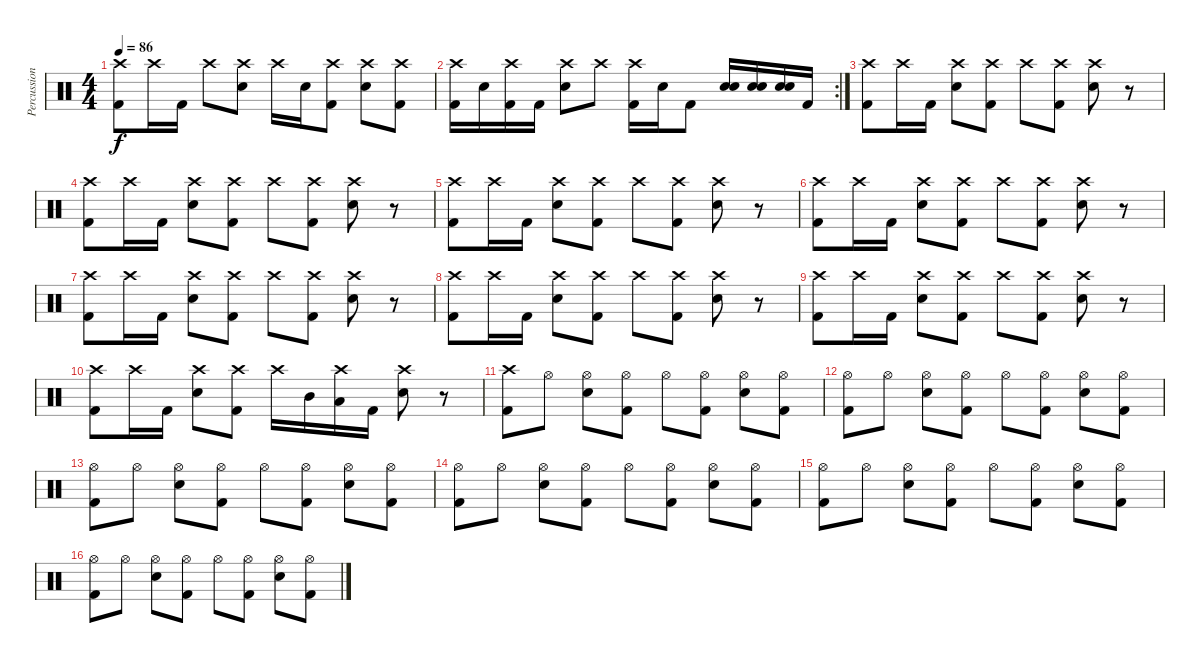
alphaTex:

\track ("Percussions" "Percussion") {instrument percussion}
\staff {score}
\articulation defaults
\ts (4 4)
\tempo 86
\clef neutral
\ks c
("Crash high (hit)" "Kick (hit) 2").8{dy f} "Crash high (hit)".16 "Kick (hit) 2".16 "Crash high (hit)".8 ("Crash high (hit)" "Electric Snare (hit)").8 "Crash high (hit)".16 "Electric Snare (hit)".16 ("Crash high (hit)" "Kick (hit) 2").8 ("Crash high (hit)" "Electric Snare (hit)").8 ("Crash high (hit)" "Kick (hit) 2").8 |
\rc 2
("Crash high (hit)" "Kick (hit) 2").16 "Electric Snare (hit)".16 ("Crash high (hit)" "Kick (hit) 2").16 "Kick (hit) 2".16 ("Crash high (hit)" "Electric Snare (hit)").8 "Crash high (hit)".8 ("Crash high (hit)" "Kick (hit) 2").16 "Electric Snare (hit)".16 "Kick (hit) 2".8 ("Electric Snare (hit)" "Electric Snare (hit)").16 ("Electric Snare (hit)" "Electric Snare (hit)").16 ("Electric Snare (hit)" "Electric Snare (hit)").16 "Kick (hit) 2".16 |
("Crash high (hit)" "Kick (hit) 2").8 "Crash high (hit)".16 "Kick (hit) 2".16 ("Crash high (hit)" "Electric Snare (hit)").8 ("Crash high (hit)" "Kick (hit) 2").8 "Crash high (hit)".8 ("Crash high (hit)" "Kick (hit) 2").8 ("Crash high (hit)" "Electric Snare (hit)").8 r.8 |
("Crash high (hit)" "Kick (hit) 2").8 "Crash high (hit)".16 "Kick (hit) 2".16 ("Crash high (hit)" "Electric Snare (hit)").8 ("Crash high (hit)" "Kick (hit) 2").8 "Crash high (hit)".8 ("Crash high (hit)" "Kick (hit) 2").8 ("Crash high (hit)" "Electric Snare (hit)").8 r.8 |
("Crash high (hit)" "Kick (hit) 2").8 "Crash high (hit)".16 "Kick (hit) 2".16 ("Crash high (hit)" "Electric Snare (hit)").8 ("Crash high (hit)" "Kick (hit) 2").8 "Crash high (hit)".8 ("Crash high (hit)" "Kick (hit) 2").8 ("Crash high (hit)" "Electric Snare (hit)").8 r.8 |
("Crash high (hit)" "Kick (hit) 2").8 "Crash high (hit)".16 "Kick (hit) 2".16 ("Crash high (hit)" "Electric Snare (hit)").8 ("Crash high (hit)" "Kick (hit) 2").8 "Crash high (hit)".8 ("Crash high (hit)" "Kick (hit) 2").8 ("Crash high (hit)" "Electric Snare (hit)").8 r.8 |
("Crash high (hit)" "Kick (hit) 2").8 "Crash high (hit)".16 "Kick (hit) 2".16 ("Crash high (hit)" "Electric Snare (hit)").8 ("Crash high (hit)" "Kick (hit) 2").8 "Crash high (hit)".8 ("Crash high (hit)" "Kick (hit) 2").8 ("Crash high (hit)" "Electric Snare (hit)").8 r.8 |
("Crash high (hit)" "Kick (hit) 2").8 "Crash high (hit)".16 "Kick (hit) 2".16 ("Crash high (hit)" "Electric Snare (hit)").8 ("Crash high (hit)" "Kick (hit) 2").8 "Crash high (hit)".8 ("Crash high (hit)" "Kick (hit) 2").8 ("Crash high (hit)" "Electric Snare (hit)").8 r.8 |
("Crash high (hit)" "Kick (hit) 2").8 "Crash high (hit)".16 "Kick (hit) 2".16 ("Crash high (hit)" "Electric Snare (hit)").8 ("Crash high (hit)" "Kick (hit) 2").8 "Crash high (hit)".8 ("Crash high (hit)" "Kick (hit) 2").8 ("Crash high (hit)" "Electric Snare (hit)").8 r.8 |
("Crash high (hit)" "Kick (hit) 2").8 "Crash high (hit)".16 "Kick (hit) 2".16 ("Crash high (hit)" "Electric Snare (hit)").8 ("Crash high (hit)" "Kick (hit) 2").8 "Crash high (hit)".16 "Mid Tom (hit)".16 ("Crash high (hit)" "Low Tom (hit)").16 "Kick (hit) 2".16 ("Crash high (hit)" "Electric Snare (hit)").8 r.8 |
("Crash high (hit)" "Kick (hit) 2").8 "Hi-Hat (open)".8 ("Hi-Hat (open)" "Electric Snare (hit)").8 ("Hi-Hat (open)" "Kick (hit) 2").8 "Hi-Hat (open)".8 ("Hi-Hat (open)" "Kick (hit) 2").8 ("Hi-Hat (open)" "Electric Snare (hit)").8 ("Hi-Hat (open)" "Kick (hit) 2").8 |
("Hi-Hat (open)" "Kick (hit) 2").8 "Hi-Hat (open)".8 ("Hi-Hat (open)" "Electric Snare (hit)").8 ("Hi-Hat (open)" "Kick (hit) 2").8 "Hi-Hat (open)".8 ("Hi-Hat (open)" "Kick (hit) 2").8 ("Hi-Hat (open)" "Electric Snare (hit)").8 ("Hi-Hat (open)" "Kick (hit) 2").8 |
("Hi-Hat (open)" "Kick (hit) 2").8 "Hi-Hat (open)".8 ("Hi-Hat (open)" "Electric Snare (hit)").8 ("Hi-Hat (open)" "Kick (hit) 2").8 "Hi-Hat (open)".8 ("Hi-Hat (open)" "Kick (hit) 2").8 ("Hi-Hat (open)" "Electric Snare (hit)").8 ("Hi-Hat (open)" "Kick (hit) 2").8 |
("Hi-Hat (open)" "Kick (hit) 2").8 "Hi-Hat (open)".8 ("Hi-Hat (open)" "Electric Snare (hit)").8 ("Hi-Hat (open)" "Kick (hit) 2").8 "Hi-Hat (open)".8 ("Hi-Hat (open)" "Kick (hit) 2").8 ("Hi-Hat (open)" "Electric Snare (hit)").8 ("Hi-Hat (open)" "Kick (hit) 2").8 |
("Hi-Hat (open)" "Kick (hit) 2").8 "Hi-Hat (open)".8 ("Hi-Hat (open)" "Electric Snare (hit)").8 ("Hi-Hat (open)" "Kick (hit) 2").8 "Hi-Hat (open)".8 ("Hi-Hat (open)" "Kick (hit) 2").8 ("Hi-Hat (open)" "Electric Snare (hit)").8 ("Hi-Hat (open)" "Kick (hit) 2").8 |
("Hi-Hat (open)" "Kick (hit) 2").8 "Hi-Hat (open)".8 ("Hi-Hat (open)" "Electric Snare (hit)").8 ("Hi-Hat (open)" "Kick (hit) 2").8 "Hi-Hat (open)".8 ("Hi-Hat (open)" "Kick (hit) 2").8 ("Hi-Hat (open)" "Electric Snare (hit)").8 ("Hi-Hat (open)" "Kick (hit) 2").8
